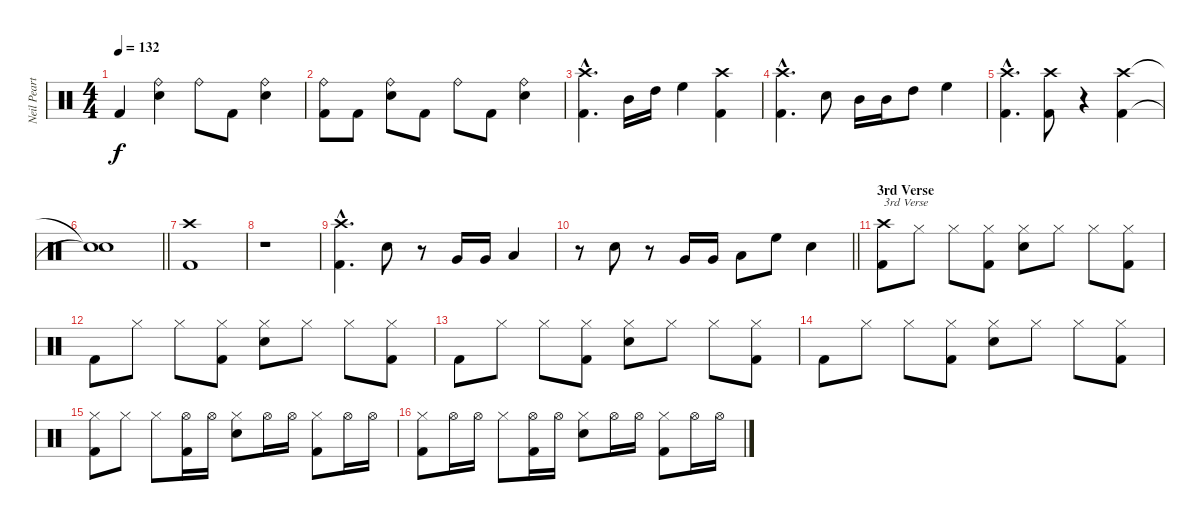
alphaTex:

\track ("Neil Peart" "Neil Peart") {instrument percussion}
\staff {score}
\articulation defaults
\ts (4 4)
\tempo 132
\clef neutral
\ks c "Kick (hit) 2".4{dy f}
("Ride (bell)" "Electric Snare (hit)").4 "Ride (bell)".8 "Kick (hit) 2".8 ("Ride (bell)" "Electric Snare (hit)").4 |
("Ride (bell)" "Kick (hit) 2").8 "Kick (hit) 2".8 ("Ride (bell)" "Electric Snare (hit)").8 "Kick (hit) 2".8 "Ride (bell)".8 "Kick (hit) 2".8 ("Ride (bell)" "Electric Snare (hit)").4 |
("Crash high (hit)"{hac} "Kick (hit) 2"{hac}).4{d} "Mid Tom (hit)".16 "High Tom (hit)".16 "High Floor Tom (hit)".4 ("Crash high (hit)" "Kick (hit) 2").4 |
("Crash high (hit)"{hac} "Kick (hit) 2"{hac}).4{d} "Electric Snare (hit)".8 "Mid Tom (hit)".16 "Mid Tom (hit)".16 "High Tom (hit)".8 "High Floor Tom (hit)".4 |
("Crash high (hit)"{hac} "Kick (hit) 2"{hac}).4{d} ("Crash high (hit)" "Kick (hit) 2").8 r.4 ("Crash high (hit)" "Kick (hit) 2").4 |
\barLineRight lightlight
("Snare (hit)"{t} "Snare (hit)"{t}).1 |
("Crash high (hit)" "Kick (hit) 2").1 |
r.1 |
("Crash high (hit)"{hac} "Kick (hit) 2"{hac}).4{d} "Electric Snare (hit)".8 r.8 "Very Low Tom (hit)".16 "Very Low Tom (hit)".16 "Low Tom (hit)".4 |
\barLineRight lightlight
r.8 "Electric Snare (hit)".8 r.8 "Very Low Tom (hit)".16 "Very Low Tom (hit)".16 "Low Tom (hit)".8 "High Floor Tom (hit)".8 "Electric Snare (hit)".4 |
\section ("" "3rd Verse")
("Crash high (hit)" "Kick (hit) 2").8{txt "3rd Verse"} "Hi-Hat (closed)".8 "Hi-Hat (closed)".8 ("Hi-Hat (closed)" "Kick (hit) 2").8 ("Hi-Hat (closed)" "Electric Snare (hit)").8 "Hi-Hat (closed)".8 "Hi-Hat (closed)".8 ("Hi-Hat (closed)" "Kick (hit) 2").8 |
"Kick (hit) 2".8 "Hi-Hat (closed)".8 "Hi-Hat (closed)".8 ("Hi-Hat (closed)" "Kick (hit) 2").8 ("Hi-Hat (closed)" "Electric Snare (hit)").8 "Hi-Hat (closed)".8 "Hi-Hat (closed)".8 ("Hi-Hat (closed)" "Kick (hit) 2").8 |
"Kick (hit) 2".8 "Hi-Hat (closed)".8 "Hi-Hat (closed)".8 ("Hi-Hat (closed)" "Kick (hit) 2").8 ("Hi-Hat (closed)" "Electric Snare (hit)").8 "Hi-Hat (closed)".8 "Hi-Hat (closed)".8 ("Hi-Hat (closed)" "Kick (hit) 2").8 |
"Kick (hit) 2".8 "Hi-Hat (closed)".8 "Hi-Hat (closed)".8 ("Hi-Hat (closed)" "Kick (hit) 2").8 ("Hi-Hat (closed)" "Electric Snare (hit)").8 "Hi-Hat (closed)".8 "Hi-Hat (closed)".8 ("Hi-Hat (closed)" "Kick (hit) 2").8 |
("Hi-Hat (closed)" "Kick (hit) 2").8 "Hi-Hat (closed)".8 "Hi-Hat (closed)".8 ("Hi-Hat (open)" "Kick (hit) 2").16 "Hi-Hat (open)".16 ("Hi-Hat (closed)" "Electric Snare (hit)").8 "Hi-Hat (open)".16 "Hi-Hat (open)".16 ("Hi-Hat (closed)" "Kick (hit) 2").8 "Hi-Hat (open)".16 "Hi-Hat (open)".16 |
("Hi-Hat (closed)" "Kick (hit) 2").8 "Hi-Hat (open)".16 "Hi-Hat (open)".16 "Hi-Hat (closed)".8 ("Hi-Hat (open)" "Kick (hit) 2").16 "Hi-Hat (open)".16 ("Hi-Hat (closed)" "Electric Snare (hit)").8 "Hi-Hat (open)".16 "Hi-Hat (open)".16 ("Hi-Hat (closed)" "Kick (hit) 2").8 "Hi-Hat (open)".16 "Hi-Hat (open)".16
